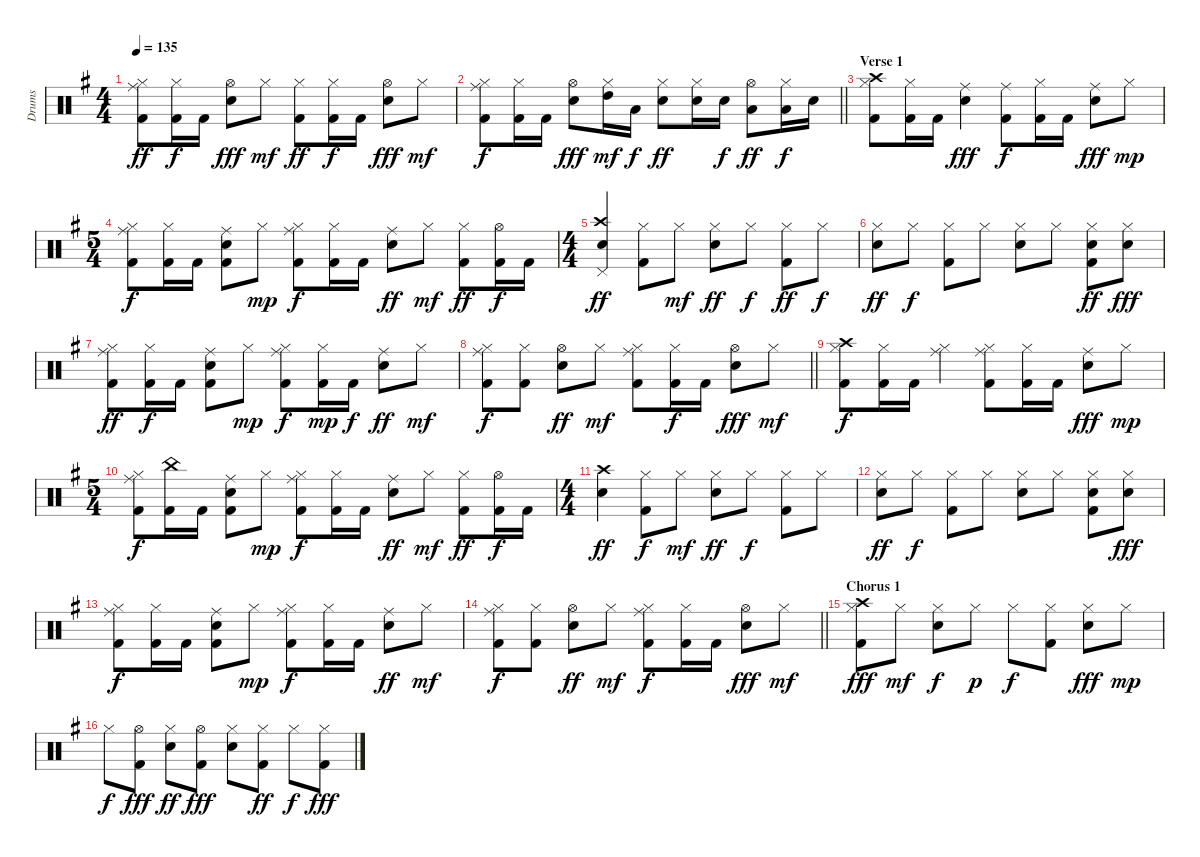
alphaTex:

\track ("Drums" "Drums") {instrument percussion}
\staff {score}
\articulation defaults
\ts (4 4)
\tempo 135
\clef neutral
\ks g
("Hi-Hat (closed)" "Ride (middle)" "Kick (hit) 2").8{dy ff} ("Hi-Hat (closed)" "Kick (hit) 2").16{dy f} "Kick (hit) 2".16 ("Hi-Hat (open)" "Electric Snare (hit)").8{dy fff} "Hi-Hat (closed)".8{dy mf} ("Hi-Hat (closed)" "Kick (hit) 2").8{dy ff} ("Hi-Hat (closed)" "Kick (hit) 2").16{dy f} "Kick (hit) 2".16 ("Hi-Hat (open)" "Electric Snare (hit)").8{dy fff} "Hi-Hat (closed)".8{dy mf} |
\barLineRight lightlight
("Hi-Hat (closed)" "Ride (middle)" "Kick (hit) 2").8{dy f} ("Hi-Hat (closed)" "Kick (hit) 2").16 "Kick (hit) 2".16 ("Hi-Hat (open)" "Electric Snare (hit)").8{dy fff} ("Hi-Hat (closed)" "High Tom (hit)").16{dy mf} "Low Tom (hit)".16{dy f} ("Hi-Hat (closed)" "Electric Snare (hit)").8{dy ff} ("Hi-Hat (closed)" "Electric Snare (hit)").16 "Electric Snare (hit)".16{dy f} ("Hi-Hat (open)" "Low Tom (hit)").8{dy ff} ("Hi-Hat (closed)" "Low Tom (hit)").16{dy f} "Electric Snare (hit)".16 |
\section ("" "Verse 1")
("Hi-Hat (closed)" "Crash high (hit)" "Kick (hit) 2").8 ("Hi-Hat (closed)" "Kick (hit) 2").16 "Kick (hit) 2".16 ("Ride (middle)" "Electric Snare (hit)").4{dy fff} ("Ride (middle)" "Kick (hit) 2").8{dy f} ("Hi-Hat (closed)" "Kick (hit) 2").16 "Kick (hit) 2".16 ("Ride (middle)" "Electric Snare (hit)").8{dy fff} "Hi-Hat (closed)".8{dy mp} |
\ts (5 4)
("Hi-Hat (closed)" "Ride (middle)" "Kick (hit) 2").8{dy f} ("Hi-Hat (closed)" "Kick (hit) 2").16 "Kick (hit) 2".16 ("Ride (middle)" "Electric Snare (hit)" "Kick (hit) 2").8 "Hi-Hat (closed)".8{dy mp} ("Hi-Hat (closed)" "Ride (middle)" "Kick (hit) 2").8{dy f} ("Hi-Hat (closed)" "Kick (hit) 2").16 "Kick (hit) 2".16 ("Ride (middle)" "Electric Snare (hit)").8{dy ff} "Hi-Hat (closed)".8{dy mf} ("Hi-Hat (closed)" "Kick (hit) 2").8{dy ff} ("Hi-Hat (open)" "Kick (hit) 2").16{dy f} "Kick (hit) 2".16 |
\ts (4 4)
("Pedal Hi-Hat (hit)" "Crash high (hit)" "Electric Snare (hit)").4{dy ff} ("Hi-Hat (closed)" "Kick (hit) 2").8 "Hi-Hat (closed)".8{dy mf} ("Hi-Hat (closed)" "Electric Snare (hit)").8{dy ff} "Hi-Hat (closed)".8{dy f} ("Hi-Hat (closed)" "Kick (hit) 2").8{dy ff} "Hi-Hat (closed)".8{dy f} |
("Hi-Hat (closed)" "Electric Snare (hit)").8{dy ff} "Hi-Hat (closed)".8{dy f} ("Hi-Hat (closed)" "Kick (hit) 2").8 "Hi-Hat (closed)".8 ("Hi-Hat (closed)" "Electric Snare (hit)").8 "Hi-Hat (closed)".8 ("Hi-Hat (closed)" "Electric Snare (hit)" "Kick (hit) 2").8{dy ff} ("Hi-Hat (closed)" "Electric Snare (hit)").8{dy fff} |
("Hi-Hat (closed)" "Ride (middle)" "Kick (hit) 2").8{dy ff} ("Hi-Hat (closed)" "Kick (hit) 2").16{dy f} "Kick (hit) 2".16 ("Ride (middle)" "Electric Snare (hit)" "Kick (hit) 2").8 "Hi-Hat (closed)".8{dy mp} ("Hi-Hat (closed)" "Ride (middle)" "Kick (hit) 2").8{dy f} ("Hi-Hat (closed)" "Kick (hit) 2").16{dy mp} "Kick (hit) 2".16{dy f} ("Ride (middle)" "Electric Snare (hit)").8{dy ff} "Hi-Hat (closed)".8{dy mf} |
\barLineRight lightlight
("Hi-Hat (closed)" "Ride (middle)" "Kick (hit) 2").8{dy f} ("Hi-Hat (closed)" "Kick (hit) 2").8 ("Hi-Hat (open)" "Electric Snare (hit)").8{dy ff} "Hi-Hat (closed)".8{dy mf} ("Hi-Hat (closed)" "Ride (middle)" "Kick (hit) 2").8 ("Hi-Hat (closed)" "Kick (hit) 2").16{dy f} "Kick (hit) 2".16 ("Hi-Hat (open)" "Electric Snare (hit)").8{dy fff} "Hi-Hat (closed)".8{dy mf} |
("Hi-Hat (closed)" "Crash high (hit)" "Kick (hit) 2").8{dy f} ("Hi-Hat (closed)" "Kick (hit) 2").16 "Kick (hit) 2".16 ("Hi-Hat (closed)" "Ride (middle)").4 ("Hi-Hat (closed)" "Ride (middle)" "Kick (hit) 2").8 ("Hi-Hat (closed)" "Kick (hit) 2").16 "Kick (hit) 2".16 ("Ride (middle)" "Electric Snare (hit)").8{dy fff} "Hi-Hat (closed)".8{dy mp} |
\ts (5 4)
("Hi-Hat (closed)" "Ride (middle)" "Kick (hit) 2").8{dy f} ("China (hit)" "Kick (hit) 2").16 "Kick (hit) 2".16 ("Ride (middle)" "Electric Snare (hit)" "Kick (hit) 2").8 "Hi-Hat (closed)".8{dy mp} ("Hi-Hat (closed)" "Ride (middle)" "Kick (hit) 2").8{dy f} ("Hi-Hat (closed)" "Kick (hit) 2").16 "Kick (hit) 2".16 ("Ride (middle)" "Electric Snare (hit)").8{dy ff} "Hi-Hat (closed)".8{dy mf} ("Hi-Hat (closed)" "Kick (hit) 2").8{dy ff} ("Hi-Hat (open)" "Kick (hit) 2").16{dy f} "Kick (hit) 2".16 |
\ts (4 4)
("Crash high (hit)" "Electric Snare (hit)").4{dy ff} ("Hi-Hat (closed)" "Kick (hit) 2").8{dy f} "Hi-Hat (closed)".8{dy mf} ("Hi-Hat (closed)" "Electric Snare (hit)").8{dy ff} "Hi-Hat (closed)".8{dy f} ("Hi-Hat (closed)" "Kick (hit) 2").8 "Hi-Hat (closed)".8 |
("Hi-Hat (closed)" "Electric Snare (hit)").8{dy ff} "Hi-Hat (closed)".8{dy f} ("Hi-Hat (closed)" "Kick (hit) 2").8 "Hi-Hat (closed)".8 ("Hi-Hat (closed)" "Electric Snare (hit)").8 "Hi-Hat (closed)".8 ("Hi-Hat (closed)" "Electric Snare (hit)" "Kick (hit) 2").8 ("Hi-Hat (closed)" "Electric Snare (hit)").8{dy fff} |
("Hi-Hat (closed)" "Ride (middle)" "Kick (hit) 2").8{dy f} ("Hi-Hat (closed)" "Kick (hit) 2").16 "Kick (hit) 2".16 ("Ride (middle)" "Electric Snare (hit)" "Kick (hit) 2").8 "Hi-Hat (closed)".8{dy mp} ("Hi-Hat (closed)" "Ride (middle)" "Kick (hit) 2").8{dy f} ("Hi-Hat (closed)" "Kick (hit) 2").16 "Kick (hit) 2".16 ("Ride (middle)" "Electric Snare (hit)").8{dy ff} "Hi-Hat (closed)".8{dy mf} |
\barLineRight lightlight
("Hi-Hat (closed)" "Ride (middle)" "Kick (hit) 2").8{dy f} ("Hi-Hat (closed)" "Kick (hit) 2").8 ("Hi-Hat (open)" "Electric Snare (hit)").8{dy ff} "Hi-Hat (closed)".8{dy mf} ("Hi-Hat (closed)" "Ride (middle)" "Kick (hit) 2").8{dy f} ("Hi-Hat (closed)" "Kick (hit) 2").16 "Kick (hit) 2".16 ("Hi-Hat (open)" "Electric Snare (hit)").8{dy fff} "Hi-Hat (closed)".8{dy mf} |
\section ("" "Chorus 1")
("Hi-Hat (closed)" "Crash high (hit)" "Kick (hit) 2").8{dy fff} "Hi-Hat (closed)".8{dy mf} ("Hi-Hat (closed)" "Electric Snare (hit)").8{dy f} "Hi-Hat (closed)".8{dy p} "Hi-Hat (closed)".8{dy f} ("Hi-Hat (closed)" "Kick (hit) 2").8 ("Hi-Hat (closed)" "Electric Snare (hit)").8{dy fff} "Hi-Hat (closed)".8{dy mp} |
"Hi-Hat (closed)".8{dy f} ("Hi-Hat (open)" "Kick (hit) 2").8{dy fff} ("Hi-Hat (closed)" "Electric Snare (hit)").8{dy ff} ("Hi-Hat (open)" "Kick (hit) 2").8{dy fff} ("Hi-Hat (closed)" "Electric Snare (hit)").8 ("Hi-Hat (closed)" "Kick (hit) 2").8{dy ff} "Hi-Hat (closed)".8{dy f} ("Hi-Hat (closed)" "Kick (hit) 2").8{dy fff}
